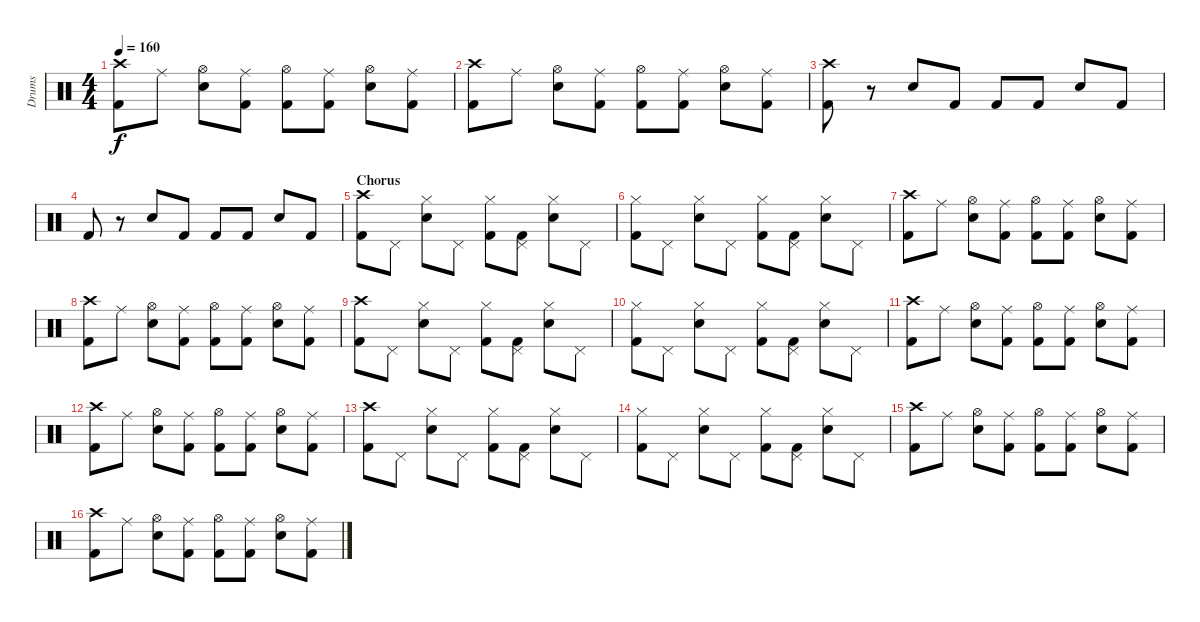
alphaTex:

\track ("Drums" "Drums") {instrument percussion}
\staff {score}
\articulation defaults
\ts (4 4)
\tempo 160
\clef neutral
\ks c
("Kick (hit) 2" "Crash high (hit)").8{dy f} "Ride (middle)".8 ("Electric Snare (hit)" "Hi-Hat (open)").8 ("Kick (hit) 2" "Ride (middle)").8 ("Kick (hit) 2" "Hi-Hat (open)").8 ("Kick (hit) 2" "Ride (middle)").8 ("Electric Snare (hit)" "Hi-Hat (open)").8 ("Kick (hit) 2" "Ride (middle)").8 |
("Kick (hit) 2" "Crash high (hit)").8 "Ride (middle)".8 ("Electric Snare (hit)" "Hi-Hat (open)").8 ("Kick (hit) 2" "Ride (middle)").8 ("Kick (hit) 2" "Hi-Hat (open)").8 ("Kick (hit) 2" "Ride (middle)").8 ("Electric Snare (hit)" "Hi-Hat (open)").8 ("Kick (hit) 2" "Ride (middle)").8 |
("Kick (hit) 2" "Crash high (hit)").8 r.8 "Electric Snare (hit)".8 "Kick (hit) 2".8 "Kick (hit) 2".8 "Kick (hit) 2".8 "Electric Snare (hit)".8 "Kick (hit) 2".8 |
"Kick (hit) 2".8 r.8 "Electric Snare (hit)".8 "Kick (hit) 2".8 "Kick (hit) 2".8 "Kick (hit) 2".8 "Electric Snare (hit)".8 "Kick (hit) 2".8 |
\section ("" "Chorus")
("Kick (hit) 2" "Crash high (hit)").8 "Pedal Hi-Hat (hit)".8 ("Electric Snare (hit)" "Hi-Hat (closed)").8 "Pedal Hi-Hat (hit)".8 ("Kick (hit) 2" "Hi-Hat (closed)").8 ("Kick (hit) 2" "Pedal Hi-Hat (hit)").8 ("Electric Snare (hit)" "Hi-Hat (closed)").8 "Pedal Hi-Hat (hit)".8 |
("Kick (hit) 2" "Hi-Hat (closed)").8 "Pedal Hi-Hat (hit)".8 ("Electric Snare (hit)" "Hi-Hat (closed)").8 "Pedal Hi-Hat (hit)".8 ("Kick (hit) 2" "Hi-Hat (closed)").8 ("Kick (hit) 2" "Pedal Hi-Hat (hit)").8 ("Electric Snare (hit)" "Hi-Hat (closed)").8 "Pedal Hi-Hat (hit)".8 |
("Kick (hit) 2" "Crash high (hit)").8 "Ride (middle)".8 ("Electric Snare (hit)" "Hi-Hat (open)").8 ("Kick (hit) 2" "Ride (middle)").8 ("Kick (hit) 2" "Hi-Hat (open)").8 ("Kick (hit) 2" "Ride (middle)").8 ("Electric Snare (hit)" "Hi-Hat (open)").8 ("Kick (hit) 2" "Ride (middle)").8 |
("Kick (hit) 2" "Crash high (hit)").8 "Ride (middle)".8 ("Electric Snare (hit)" "Hi-Hat (open)").8 ("Kick (hit) 2" "Ride (middle)").8 ("Kick (hit) 2" "Hi-Hat (open)").8 ("Kick (hit) 2" "Ride (middle)").8 ("Electric Snare (hit)" "Hi-Hat (open)").8 ("Kick (hit) 2" "Ride (middle)").8 |
("Kick (hit) 2" "Crash high (hit)").8 "Pedal Hi-Hat (hit)".8 ("Electric Snare (hit)" "Hi-Hat (closed)").8 "Pedal Hi-Hat (hit)".8 ("Kick (hit) 2" "Hi-Hat (closed)").8 ("Kick (hit) 2" "Pedal Hi-Hat (hit)").8 ("Electric Snare (hit)" "Hi-Hat (closed)").8 "Pedal Hi-Hat (hit)".8 |
("Kick (hit) 2" "Hi-Hat (closed)").8 "Pedal Hi-Hat (hit)".8 ("Electric Snare (hit)" "Hi-Hat (closed)").8 "Pedal Hi-Hat (hit)".8 ("Kick (hit) 2" "Hi-Hat (closed)").8 ("Kick (hit) 2" "Pedal Hi-Hat (hit)").8 ("Electric Snare (hit)" "Hi-Hat (closed)").8 "Pedal Hi-Hat (hit)".8 |
("Kick (hit) 2" "Crash high (hit)").8 "Ride (middle)".8 ("Electric Snare (hit)" "Hi-Hat (open)").8 ("Kick (hit) 2" "Ride (middle)").8 ("Kick (hit) 2" "Hi-Hat (open)").8 ("Kick (hit) 2" "Ride (middle)").8 ("Electric Snare (hit)" "Hi-Hat (open)").8 ("Kick (hit) 2" "Ride (middle)").8 |
("Kick (hit) 2" "Crash high (hit)").8 "Ride (middle)".8 ("Electric Snare (hit)" "Hi-Hat (open)").8 ("Kick (hit) 2" "Ride (middle)").8 ("Kick (hit) 2" "Hi-Hat (open)").8 ("Kick (hit) 2" "Ride (middle)").8 ("Electric Snare (hit)" "Hi-Hat (open)").8 ("Kick (hit) 2" "Ride (middle)").8 |
("Kick (hit) 2" "Crash high (hit)").8 "Pedal Hi-Hat (hit)".8 ("Electric Snare (hit)" "Hi-Hat (closed)").8 "Pedal Hi-Hat (hit)".8 ("Kick (hit) 2" "Hi-Hat (closed)").8 ("Kick (hit) 2" "Pedal Hi-Hat (hit)").8 ("Electric Snare (hit)" "Hi-Hat (closed)").8 "Pedal Hi-Hat (hit)".8 |
("Kick (hit) 2" "Hi-Hat (closed)").8 "Pedal Hi-Hat (hit)".8 ("Electric Snare (hit)" "Hi-Hat (closed)").8 "Pedal Hi-Hat (hit)".8 ("Kick (hit) 2" "Hi-Hat (closed)").8 ("Kick (hit) 2" "Pedal Hi-Hat (hit)").8 ("Electric Snare (hit)" "Hi-Hat (closed)").8 "Pedal Hi-Hat (hit)".8 |
("Kick (hit) 2" "Crash high (hit)").8 "Ride (middle)".8 ("Electric Snare (hit)" "Hi-Hat (open)").8 ("Kick (hit) 2" "Ride (middle)").8 ("Kick (hit) 2" "Hi-Hat (open)").8 ("Kick (hit) 2" "Ride (middle)").8 ("Electric Snare (hit)" "Hi-Hat (open)").8 ("Kick (hit) 2" "Ride (middle)").8 |
("Kick (hit) 2" "Crash high (hit)").8 "Ride (middle)".8 ("Electric Snare (hit)" "Hi-Hat (open)").8 ("Kick (hit) 2" "Ride (middle)").8 ("Kick (hit) 2" "Hi-Hat (open)").8 ("Kick (hit) 2" "Ride (middle)").8 ("Electric Snare (hit)" "Hi-Hat (open)").8 ("Kick (hit) 2" "Ride (middle)").8
